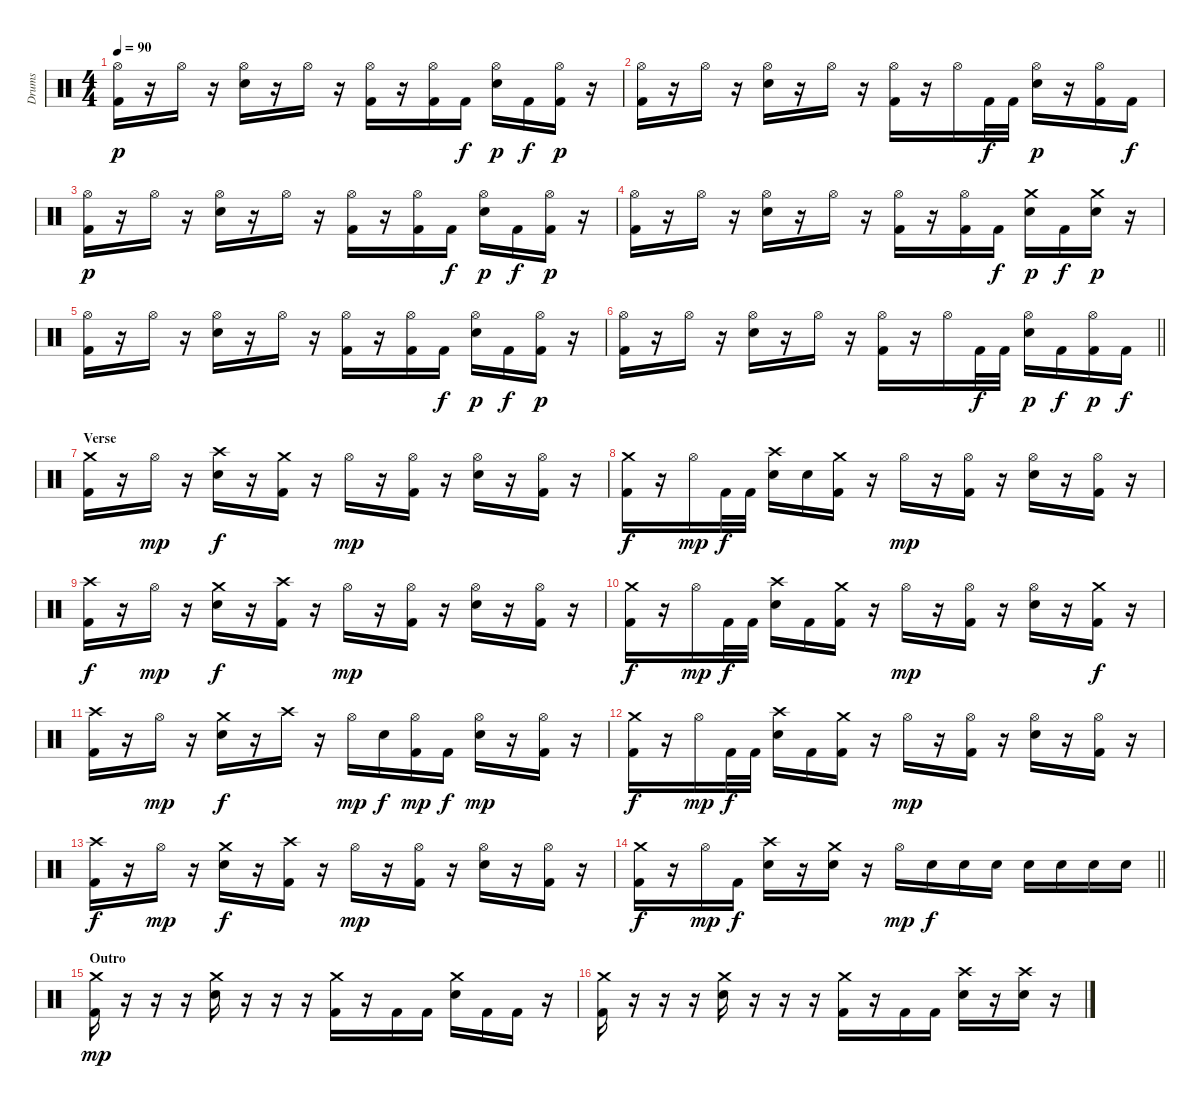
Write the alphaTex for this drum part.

\track ("Drums" "Drums") {instrument percussion}
\staff {score}
\articulation defaults
\ts (4 4)
\tempo 90
\clef neutral
\ks c
("Hi-Hat (open)" "Kick (hit) 2").16{dy p} r.16 "Hi-Hat (open)".16 r.16 ("Hi-Hat (open)" "Electric Snare (hit)").16 r.16 "Hi-Hat (open)".16 r.16 ("Hi-Hat (open)" "Kick (hit) 2").16 r.16 ("Hi-Hat (open)" "Kick (hit) 2").16 "Kick (hit) 2".16{dy f} ("Hi-Hat (open)" "Electric Snare (hit)").16{dy p} "Kick (hit) 2".16{dy f} ("Hi-Hat (open)" "Kick (hit) 2").16{dy p} r.16 |
("Hi-Hat (open)" "Kick (hit) 2").16 r.16 "Hi-Hat (open)".16 r.16 ("Hi-Hat (open)" "Electric Snare (hit)").16 r.16 "Hi-Hat (open)".16 r.16 ("Hi-Hat (open)" "Kick (hit) 2").16 r.16 "Hi-Hat (open)".16 "Kick (hit) 2".32{dy f} "Kick (hit) 2".32 ("Hi-Hat (open)" "Electric Snare (hit)").16{dy p} r.16 ("Hi-Hat (open)" "Kick (hit) 2").16 "Kick (hit) 2".16{dy f} |
("Hi-Hat (open)" "Kick (hit) 2").16{dy p} r.16 "Hi-Hat (open)".16 r.16 ("Hi-Hat (open)" "Electric Snare (hit)").16 r.16 "Hi-Hat (open)".16 r.16 ("Hi-Hat (open)" "Kick (hit) 2").16 r.16 ("Hi-Hat (open)" "Kick (hit) 2").16 "Kick (hit) 2".16{dy f} ("Hi-Hat (open)" "Electric Snare (hit)").16{dy p} "Kick (hit) 2".16{dy f} ("Hi-Hat (open)" "Kick (hit) 2").16{dy p} r.16 |
("Hi-Hat (open)" "Kick (hit) 2").16 r.16 "Hi-Hat (open)".16 r.16 ("Hi-Hat (open)" "Electric Snare (hit)").16 r.16 "Hi-Hat (open)".16 r.16 ("Hi-Hat (open)" "Kick (hit) 2").16 r.16 ("Hi-Hat (open)" "Kick (hit) 2").16 "Kick (hit) 2".16{dy f} ("Crash medium (hit)" "Electric Snare (hit)").16{dy p} "Kick (hit) 2".16{dy f} ("Crash medium (hit)" "Electric Snare (hit)").16{dy p} r.16 |
("Hi-Hat (open)" "Kick (hit) 2").16 r.16 "Hi-Hat (open)".16 r.16 ("Hi-Hat (open)" "Electric Snare (hit)").16 r.16 "Hi-Hat (open)".16 r.16 ("Hi-Hat (open)" "Kick (hit) 2").16 r.16 ("Hi-Hat (open)" "Kick (hit) 2").16 "Kick (hit) 2".16{dy f} ("Hi-Hat (open)" "Electric Snare (hit)").16{dy p} "Kick (hit) 2".16{dy f} ("Hi-Hat (open)" "Kick (hit) 2").16{dy p} r.16 |
\barLineRight lightlight
("Hi-Hat (open)" "Kick (hit) 2").16 r.16 "Hi-Hat (open)".16 r.16 ("Hi-Hat (open)" "Electric Snare (hit)").16 r.16 "Hi-Hat (open)".16 r.16 ("Hi-Hat (open)" "Kick (hit) 2").16 r.16 "Hi-Hat (open)".16 "Kick (hit) 2".32{dy f} "Kick (hit) 2".32 ("Hi-Hat (open)" "Electric Snare (hit)").16{dy p} "Kick (hit) 2".16{dy f} ("Hi-Hat (open)" "Kick (hit) 2").16{dy p} "Kick (hit) 2".16{dy f} |
\section ("" "Verse")
("Crash medium (hit)" "Kick (hit) 2").16 r.16 "Hi-Hat (open)".16{dy mp} r.16 ("Crash high (hit)" "Electric Snare (hit)").16{dy f} r.16 ("Crash medium (hit)" "Kick (hit) 2").16 r.16 "Hi-Hat (open)".16{dy mp} r.16 ("Hi-Hat (open)" "Kick (hit) 2").16 r.16 ("Hi-Hat (open)" "Electric Snare (hit)").16 r.16 ("Hi-Hat (open)" "Kick (hit) 2").16 r.16 |
("Crash medium (hit)" "Kick (hit) 2").16{dy f} r.16 "Hi-Hat (open)".16{dy mp} "Kick (hit) 2".32{dy f} "Kick (hit) 2".32 ("Crash high (hit)" "Electric Snare (hit)").16 "Electric Snare (hit)".16 ("Crash medium (hit)" "Kick (hit) 2").16 r.16 "Hi-Hat (open)".16{dy mp} r.16 ("Hi-Hat (open)" "Kick (hit) 2").16 r.16 ("Hi-Hat (open)" "Electric Snare (hit)").16 r.16 ("Hi-Hat (open)" "Kick (hit) 2").16 r.16 |
("Crash high (hit)" "Kick (hit) 2").16{dy f} r.16 "Hi-Hat (open)".16{dy mp} r.16 ("Crash medium (hit)" "Electric Snare (hit)").16{dy f} r.16 ("Crash high (hit)" "Kick (hit) 2").16 r.16 "Hi-Hat (open)".16{dy mp} r.16 ("Hi-Hat (open)" "Kick (hit) 2").16 r.16 ("Hi-Hat (open)" "Electric Snare (hit)").16 r.16 ("Hi-Hat (open)" "Kick (hit) 2").16 r.16 |
("Crash medium (hit)" "Kick (hit) 2").16{dy f} r.16 "Hi-Hat (open)".16{dy mp} "Kick (hit) 2".32{dy f} "Kick (hit) 2".32 ("Crash high (hit)" "Electric Snare (hit)").16 "Kick (hit) 2".16 ("Crash medium (hit)" "Kick (hit) 2").16 r.16 "Hi-Hat (open)".16{dy mp} r.16 ("Hi-Hat (open)" "Kick (hit) 2").16 r.16 ("Hi-Hat (open)" "Electric Snare (hit)").16 r.16 ("Crash medium (hit)" "Kick (hit) 2").16{dy f} r.16 |
("Crash high (hit)" "Kick (hit) 2").16 r.16 "Hi-Hat (open)".16{dy mp} r.16 ("Crash medium (hit)" "Electric Snare (hit)").16{dy f} r.16 "Crash high (hit)".16 r.16 "Hi-Hat (open)".16{dy mp} "Electric Snare (hit)".16{dy f} ("Hi-Hat (open)" "Kick (hit) 2").16{dy mp} "Kick (hit) 2".16{dy f} ("Hi-Hat (open)" "Electric Snare (hit)").16{dy mp} r.16 ("Hi-Hat (open)" "Kick (hit) 2").16 r.16 |
("Crash medium (hit)" "Kick (hit) 2").16{dy f} r.16 "Hi-Hat (open)".16{dy mp} "Kick (hit) 2".32{dy f} "Kick (hit) 2".32 ("Crash high (hit)" "Electric Snare (hit)").16 "Kick (hit) 2".16 ("Crash medium (hit)" "Kick (hit) 2").16 r.16 "Hi-Hat (open)".16{dy mp} r.16 ("Hi-Hat (open)" "Kick (hit) 2").16 r.16 ("Hi-Hat (open)" "Electric Snare (hit)").16 r.16 ("Hi-Hat (open)" "Kick (hit) 2").16 r.16 |
("Crash high (hit)" "Kick (hit) 2").16{dy f} r.16 "Hi-Hat (open)".16{dy mp} r.16 ("Crash medium (hit)" "Electric Snare (hit)").16{dy f} r.16 ("Crash high (hit)" "Kick (hit) 2").16 r.16 "Hi-Hat (open)".16{dy mp} r.16 ("Hi-Hat (open)" "Kick (hit) 2").16 r.16 ("Hi-Hat (open)" "Electric Snare (hit)").16 r.16 ("Hi-Hat (open)" "Kick (hit) 2").16 r.16 |
\barLineRight lightlight
("Crash medium (hit)" "Kick (hit) 2").16{dy f} r.16 "Hi-Hat (open)".16{dy mp} "Kick (hit) 2".16{dy f} ("Crash high (hit)" "Electric Snare (hit)").16 r.16 ("Crash medium (hit)" "Electric Snare (hit)").16 r.16 "Hi-Hat (open)".16{dy mp} "Electric Snare (hit)".16{dy f} "Electric Snare (hit)".16 "Electric Snare (hit)".16 "Electric Snare (hit)".16 "Electric Snare (hit)".16 "Electric Snare (hit)".16 "Electric Snare (hit)".16 |
\section ("" "Outro")
("Crash medium (hit)" "Kick (hit) 2").16{dy mp} r.16 r.16 r.16 ("Crash medium (hit)" "Electric Snare (hit)").16 r.16 r.16 r.16 ("Crash medium (hit)" "Kick (hit) 2").16 r.16 "Kick (hit) 2".16 "Kick (hit) 2".16 ("Crash medium (hit)" "Electric Snare (hit)").16 "Kick (hit) 2".16 "Kick (hit) 2".16 r.16 |
("Crash medium (hit)" "Kick (hit) 2").16 r.16 r.16 r.16 ("Crash medium (hit)" "Electric Snare (hit)").16 r.16 r.16 r.16 ("Crash medium (hit)" "Kick (hit) 2").16 r.16 "Kick (hit) 2".16 "Kick (hit) 2".16 ("Crash high (hit)" "Electric Snare (hit)").16 r.16 ("Crash high (hit)" "Electric Snare (hit)").16 r.16
